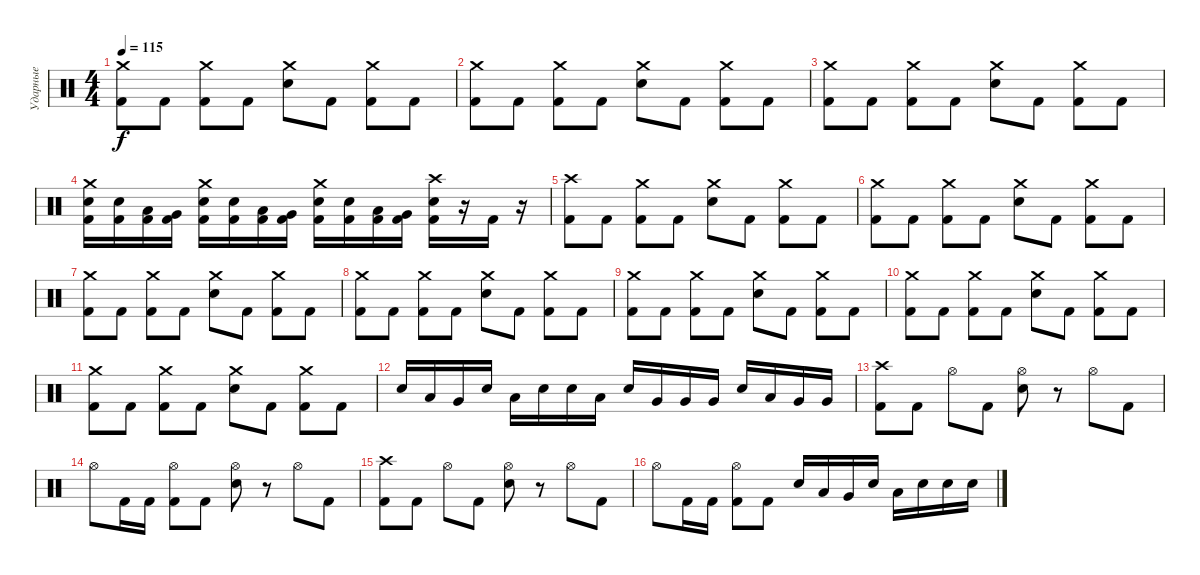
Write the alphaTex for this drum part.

\track ("Ударные" "Ударные") {instrument percussion}
\staff {score}
\articulation defaults
\ts (4 4)
\tempo 115
\clef neutral
\ks c
("Crash medium (hit)" "Kick (hit) 2").8{dy f} "Kick (hit) 2".8 ("Crash medium (hit)" "Kick (hit) 2").8 "Kick (hit) 2".8 ("Crash medium (hit)" "Electric Snare (hit)").8 "Kick (hit) 2".8 ("Crash medium (hit)" "Kick (hit) 2").8 "Kick (hit) 2".8 |
("Crash medium (hit)" "Kick (hit) 2").8 "Kick (hit) 2".8 ("Crash medium (hit)" "Kick (hit) 2").8 "Kick (hit) 2".8 ("Crash medium (hit)" "Electric Snare (hit)").8 "Kick (hit) 2".8 ("Crash medium (hit)" "Kick (hit) 2").8 "Kick (hit) 2".8 |
("Crash medium (hit)" "Kick (hit) 2").8 "Kick (hit) 2".8 ("Crash medium (hit)" "Kick (hit) 2").8 "Kick (hit) 2".8 ("Crash medium (hit)" "Electric Snare (hit)").8 "Kick (hit) 2".8 ("Crash medium (hit)" "Kick (hit) 2").8 "Kick (hit) 2".8 |
("Crash medium (hit)" "Electric Snare (hit)" "Kick (hit) 2").16 ("Electric Snare (hit)" "Kick (hit) 2").16 ("Low Tom (hit)" "Kick (hit) 2").16 ("Very Low Tom (hit)" "Kick (hit) 2").16 ("Crash medium (hit)" "Electric Snare (hit)" "Kick (hit) 2").16 ("Electric Snare (hit)" "Kick (hit) 2").16 ("Low Tom (hit)" "Kick (hit) 2").16 ("Very Low Tom (hit)" "Kick (hit) 2").16 ("Crash medium (hit)" "Electric Snare (hit)" "Kick (hit) 2").16 ("Electric Snare (hit)" "Kick (hit) 2").16 ("Low Tom (hit)" "Kick (hit) 2").16 ("Very Low Tom (hit)" "Kick (hit) 2").16 ("Crash high (hit)" "Electric Snare (hit)" "Kick (hit) 2").16 r.16 "Kick (hit) 2".16 r.16 |
("Crash high (hit)" "Kick (hit) 2").8 "Kick (hit) 2".8 ("Crash medium (hit)" "Kick (hit) 2").8 "Kick (hit) 2".8 ("Crash medium (hit)" "Electric Snare (hit)").8 "Kick (hit) 2".8 ("Crash medium (hit)" "Kick (hit) 2").8 "Kick (hit) 2".8 |
("Crash medium (hit)" "Kick (hit) 2").8 "Kick (hit) 2".8 ("Crash medium (hit)" "Kick (hit) 2").8 "Kick (hit) 2".8 ("Crash medium (hit)" "Electric Snare (hit)").8 "Kick (hit) 2".8 ("Crash medium (hit)" "Kick (hit) 2").8 "Kick (hit) 2".8 |
("Crash medium (hit)" "Kick (hit) 2").8 "Kick (hit) 2".8 ("Crash medium (hit)" "Kick (hit) 2").8 "Kick (hit) 2".8 ("Crash medium (hit)" "Electric Snare (hit)").8 "Kick (hit) 2".8 ("Crash medium (hit)" "Kick (hit) 2").8 "Kick (hit) 2".8 |
("Crash medium (hit)" "Kick (hit) 2").8 "Kick (hit) 2".8 ("Crash medium (hit)" "Kick (hit) 2").8 "Kick (hit) 2".8 ("Crash medium (hit)" "Electric Snare (hit)").8 "Kick (hit) 2".8 ("Crash medium (hit)" "Kick (hit) 2").8 "Kick (hit) 2".8 |
("Crash medium (hit)" "Kick (hit) 2").8 "Kick (hit) 2".8 ("Crash medium (hit)" "Kick (hit) 2").8 "Kick (hit) 2".8 ("Crash medium (hit)" "Electric Snare (hit)").8 "Kick (hit) 2".8 ("Crash medium (hit)" "Kick (hit) 2").8 "Kick (hit) 2".8 |
("Crash medium (hit)" "Kick (hit) 2").8 "Kick (hit) 2".8 ("Crash medium (hit)" "Kick (hit) 2").8 "Kick (hit) 2".8 ("Crash medium (hit)" "Electric Snare (hit)").8 "Kick (hit) 2".8 ("Crash medium (hit)" "Kick (hit) 2").8 "Kick (hit) 2".8 |
("Crash medium (hit)" "Kick (hit) 2").8 "Kick (hit) 2".8 ("Crash medium (hit)" "Kick (hit) 2").8 "Kick (hit) 2".8 ("Crash medium (hit)" "Electric Snare (hit)").8 "Kick (hit) 2".8 ("Crash medium (hit)" "Kick (hit) 2").8 "Kick (hit) 2".8 |
"Electric Snare (hit)".16 "Low Tom (hit)".16 "Very Low Tom (hit)".16 "Electric Snare (hit)".16 "Low Tom (hit)".16 "Electric Snare (hit)".16 "Electric Snare (hit)".16 "Low Tom (hit)".16 "Electric Snare (hit)".16 "Very Low Tom (hit)".16 "Very Low Tom (hit)".16 "Very Low Tom (hit)".16 "Electric Snare (hit)".16 "Low Tom (hit)".16 "Very Low Tom (hit)".16 "Very Low Tom (hit)".16 |
("Crash high (hit)" "Kick (hit) 2").8 "Kick (hit) 2".8 "Hi-Hat (open)".8 "Kick (hit) 2".8 ("Hi-Hat (open)" "Electric Snare (hit)").8 r.8 "Hi-Hat (open)".8 "Kick (hit) 2".8 |
"Hi-Hat (open)".8 "Kick (hit) 2".16 "Kick (hit) 2".16 ("Hi-Hat (open)" "Kick (hit) 2").8 "Kick (hit) 2".8 ("Hi-Hat (open)" "Electric Snare (hit)").8 r.8 "Hi-Hat (open)".8 "Kick (hit) 2".8 |
("Crash high (hit)" "Kick (hit) 2").8 "Kick (hit) 2".8 "Hi-Hat (open)".8 "Kick (hit) 2".8 ("Hi-Hat (open)" "Electric Snare (hit)").8 r.8 "Hi-Hat (open)".8 "Kick (hit) 2".8 |
"Hi-Hat (open)".8 "Kick (hit) 2".16 "Kick (hit) 2".16 ("Hi-Hat (open)" "Kick (hit) 2").8 "Kick (hit) 2".8 "Electric Snare (hit)".16 "Low Tom (hit)".16 "Very Low Tom (hit)".16 "Electric Snare (hit)".16 "Low Tom (hit)".16 "Electric Snare (hit)".16 "Electric Snare (hit)".16 "Electric Snare (hit)".16
